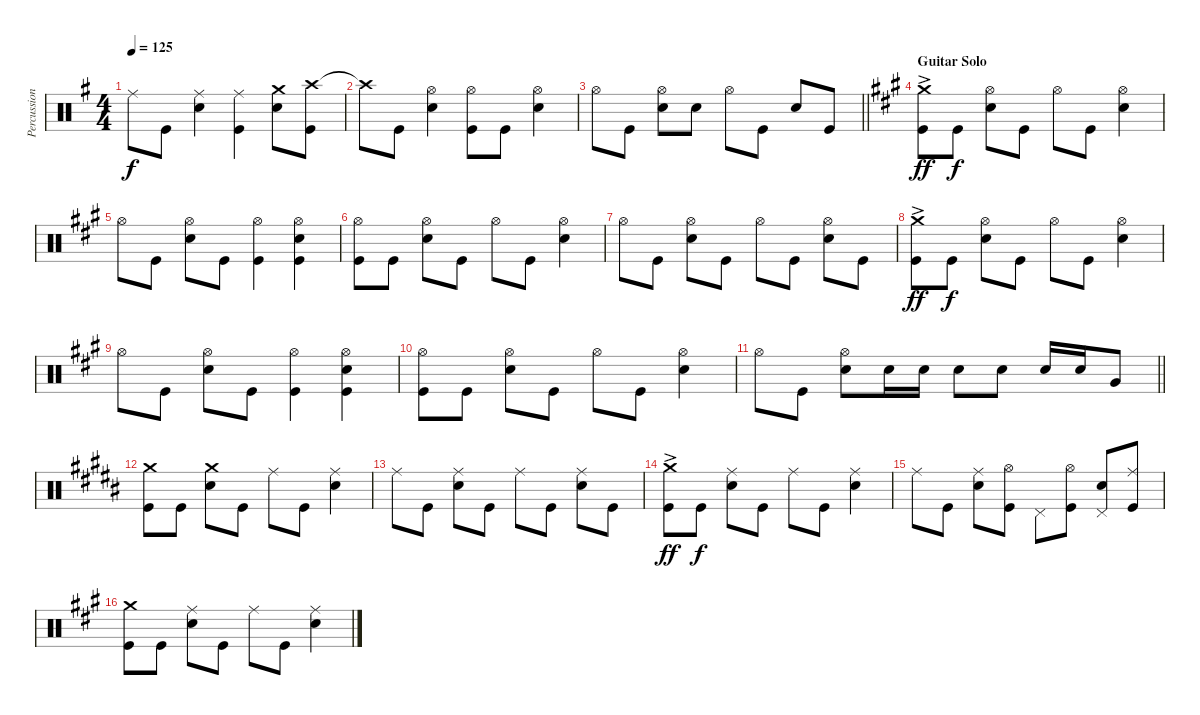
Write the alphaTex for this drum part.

\track ("Percussion" "Percussion") {instrument percussion}
\staff {score}
\articulation defaults
\ts (4 4)
\tempo 125
\clef neutral
\ks g "Ride (middle)".8{dy f} "Kick (hit)".8
("Ride (middle)" "Snare (hit) 2").4 ("Ride (middle)" "Kick (hit)").4 ("Crash medium (hit)" "Snare (hit) 2").8 ("Crash high (hit)" "Kick (hit)").8 |
"Crash high (hit)"{t}.8 "Kick (hit)".8 ("Hi-Hat (open)" "Snare (hit) 2").4 ("Hi-Hat (open)" "Kick (hit)").8 "Kick (hit)".8 ("Hi-Hat (open)" "Snare (hit) 2").4 |
\barLineRight lightlight "Hi-Hat (open)".8 "Kick (hit)".8
("Hi-Hat (open)" "Snare (hit) 2").8 "Snare (hit) 2".8 "Hi-Hat (open)".8 "Kick (hit)".8 "Snare (hit) 2".8 "Kick (hit)".8 |
\section ("" "Guitar Solo")
\ks a
("Crash medium (hit)"{ac} "Kick (hit)").8{dy ff} "Kick (hit)".8{dy f} ("Hi-Hat (open)" "Snare (hit) 2").8 "Kick (hit)".8 "Hi-Hat (open)".8 "Kick (hit)".8 ("Hi-Hat (open)" "Snare (hit) 2").4 |
"Hi-Hat (open)".8 "Kick (hit)".8 ("Hi-Hat (open)" "Snare (hit) 2").8 "Kick (hit)".8 ("Hi-Hat (open)" "Kick (hit)").4 ("Hi-Hat (open)" "Snare (hit) 2" "Kick (hit)").4 |
("Hi-Hat (open)" "Kick (hit)").8 "Kick (hit)".8 ("Hi-Hat (open)" "Snare (hit) 2").8 "Kick (hit)".8 "Hi-Hat (open)".8 "Kick (hit)".8 ("Hi-Hat (open)" "Snare (hit) 2").4 |
"Hi-Hat (open)".8 "Kick (hit)".8 ("Hi-Hat (open)" "Snare (hit) 2").8 "Kick (hit)".8 "Hi-Hat (open)".8 "Kick (hit)".8 ("Hi-Hat (open)" "Snare (hit) 2").8 "Kick (hit)".8 |
("Crash medium (hit)"{ac} "Kick (hit)").8{dy ff} "Kick (hit)".8{dy f} ("Hi-Hat (open)" "Snare (hit) 2").8 "Kick (hit)".8 "Hi-Hat (open)".8 "Kick (hit)".8 ("Hi-Hat (open)" "Snare (hit) 2").4 |
"Hi-Hat (open)".8 "Kick (hit)".8 ("Hi-Hat (open)" "Snare (hit) 2").8 "Kick (hit)".8 ("Hi-Hat (open)" "Kick (hit)").4 ("Hi-Hat (open)" "Snare (hit) 2" "Kick (hit)").4 |
("Hi-Hat (open)" "Kick (hit)").8 "Kick (hit)".8 ("Hi-Hat (open)" "Snare (hit) 2").8 "Kick (hit)".8 "Hi-Hat (open)".8 "Kick (hit)".8 ("Hi-Hat (open)" "Snare (hit) 2").4 |
\barLineRight lightlight "Hi-Hat (open)".8 "Kick (hit)".8
("Hi-Hat (open)" "Snare (hit) 2").8 "Snare (hit) 2".16 "Snare (hit) 2".16 "Snare (hit) 2".8 "Snare (hit) 2".8 "Snare (hit) 2".16 "Snare (hit) 2".16 "Very Low Tom (hit)".8 |
\ks b
("Crash medium (hit)" "Kick (hit)").8 "Kick (hit)".8 ("Crash medium (hit)" "Snare (hit) 2").8 "Kick (hit)".8 "Ride (middle)".8 "Kick (hit)".8 ("Ride (middle)" "Snare (hit) 2").4 |
"Ride (middle)".8 "Kick (hit)".8 ("Ride (middle)" "Snare (hit) 2").8 "Kick (hit)".8 "Ride (middle)".8 "Kick (hit)".8 ("Ride (middle)" "Snare (hit) 2").8 "Kick (hit)".8 |
("Crash medium (hit)"{ac} "Kick (hit)").8{dy ff} "Kick (hit)".8{dy f} ("Ride (middle)" "Snare (hit) 2").8 "Kick (hit)".8 "Ride (middle)".8 "Kick (hit)".8 ("Ride (middle)" "Snare (hit) 2").4 |
"Ride (middle)".8 "Kick (hit)".8 ("Ride (middle)" "Snare (hit) 2").8 ("Hi-Hat (open)" "Kick (hit)").8 "Pedal Hi-Hat (hit)".8 ("Hi-Hat (open)" "Kick (hit)").8 ("Pedal Hi-Hat (hit)" "Snare (hit) 2").8 ("Ride (middle)" "Kick (hit)").8 |
\ks a
("Crash medium (hit)" "Kick (hit)").8 "Kick (hit)".8 ("Ride (middle)" "Snare (hit) 2").8 "Kick (hit)".8 "Ride (middle)".8 "Kick (hit)".8 ("Ride (middle)" "Snare (hit) 2").4
